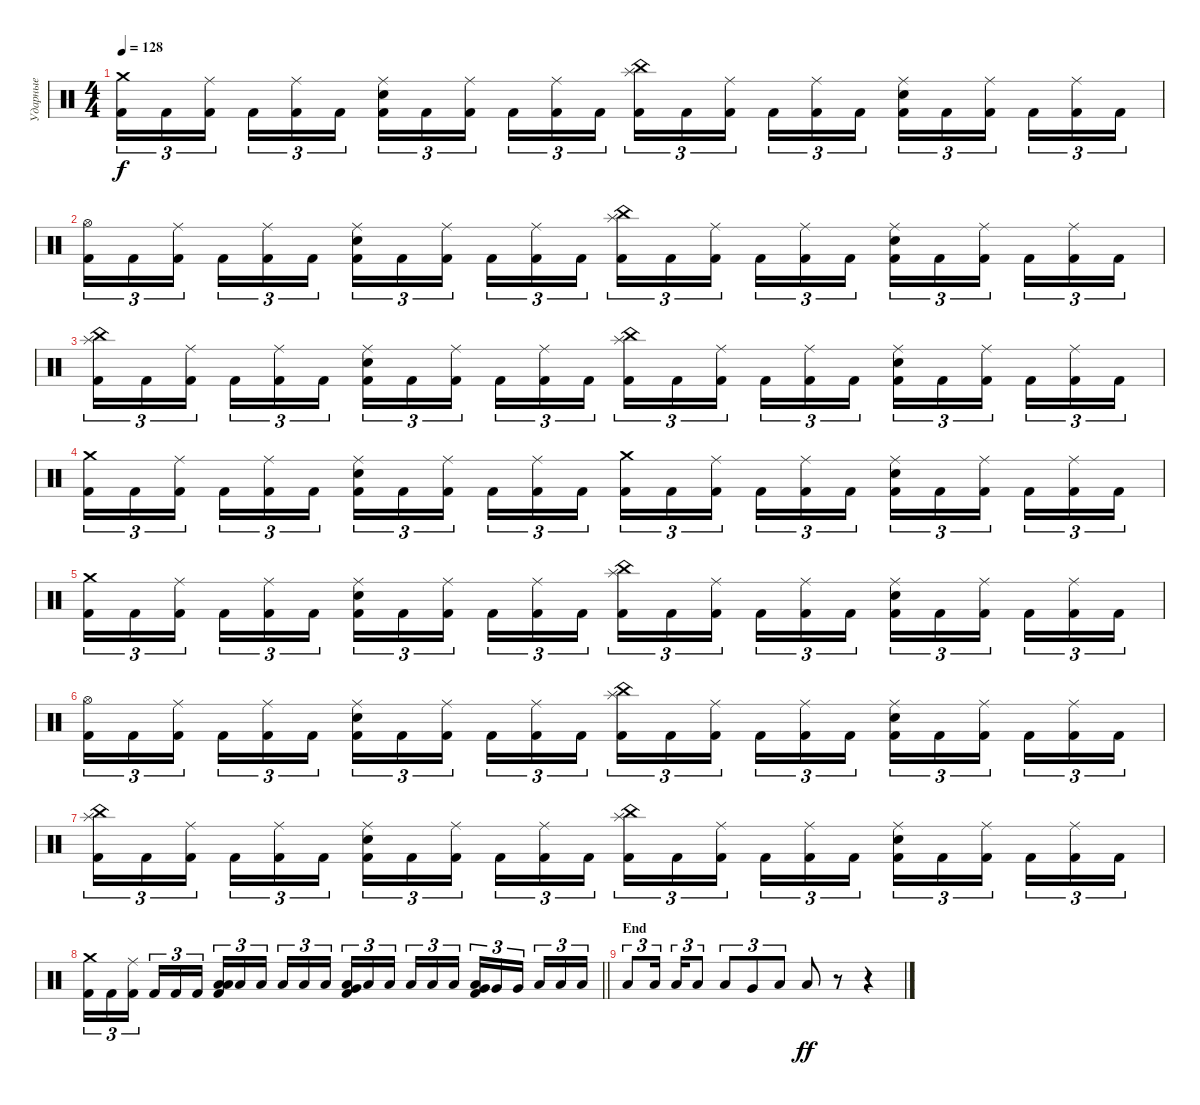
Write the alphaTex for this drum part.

\track ("Ударные" "Ударные") {instrument percussion}
\staff {score}
\articulation defaults
\ts (4 4)
\tempo 128
\clef neutral
\ks c
("Crash medium (hit)" "Kick (hit) 2").16{tu (3 2) dy f} "Kick (hit) 2".16{tu (3 2)} ("Ride (middle)" "Kick (hit) 2").16{tu (3 2) beam splitsecondary} "Kick (hit) 2".16{tu (3 2)} ("Ride (middle)" "Kick (hit) 2").16{tu (3 2)} "Kick (hit) 2".16{tu (3 2)} ("Ride (middle)" "Electric Snare (hit)" "Kick (hit) 2").16{tu (3 2)} "Kick (hit) 2".16{tu (3 2)} ("Ride (middle)" "Kick (hit) 2").16{tu (3 2) beam splitsecondary} "Kick (hit) 2".16{tu (3 2)} ("Ride (middle)" "Kick (hit) 2").16{tu (3 2)} "Kick (hit) 2".16{tu (3 2)} ("China (hit)" "Splash (hit)" "Kick (hit) 2").16{tu (3 2)} "Kick (hit) 2".16{tu (3 2)} ("Ride (middle)" "Kick (hit) 2").16{tu (3 2) beam splitsecondary} "Kick (hit) 2".16{tu (3 2)} ("Ride (middle)" "Kick (hit) 2").16{tu (3 2)} "Kick (hit) 2".16{tu (3 2)} ("Ride (middle)" "Electric Snare (hit)" "Kick (hit) 2").16{tu (3 2)} "Kick (hit) 2".16{tu (3 2)} ("Ride (middle)" "Kick (hit) 2").16{tu (3 2) beam splitsecondary} "Kick (hit) 2".16{tu (3 2)} ("Ride (middle)" "Kick (hit) 2").16{tu (3 2)} "Kick (hit) 2".16{tu (3 2)} |
("Hi-Hat (open)" "Kick (hit) 2").16{tu (3 2)} "Kick (hit) 2".16{tu (3 2)} ("Ride (middle)" "Kick (hit) 2").16{tu (3 2) beam splitsecondary} "Kick (hit) 2".16{tu (3 2)} ("Ride (middle)" "Kick (hit) 2").16{tu (3 2)} "Kick (hit) 2".16{tu (3 2)} ("Ride (middle)" "Electric Snare (hit)" "Kick (hit) 2").16{tu (3 2)} "Kick (hit) 2".16{tu (3 2)} ("Ride (middle)" "Kick (hit) 2").16{tu (3 2) beam splitsecondary} "Kick (hit) 2".16{tu (3 2)} ("Ride (middle)" "Kick (hit) 2").16{tu (3 2)} "Kick (hit) 2".16{tu (3 2)} ("China (hit)" "Splash (hit)" "Kick (hit) 2").16{tu (3 2)} "Kick (hit) 2".16{tu (3 2)} ("Ride (middle)" "Kick (hit) 2").16{tu (3 2) beam splitsecondary} "Kick (hit) 2".16{tu (3 2)} ("Ride (middle)" "Kick (hit) 2").16{tu (3 2)} "Kick (hit) 2".16{tu (3 2)} ("Ride (middle)" "Electric Snare (hit)" "Kick (hit) 2").16{tu (3 2)} "Kick (hit) 2".16{tu (3 2)} ("Ride (middle)" "Kick (hit) 2").16{tu (3 2) beam splitsecondary} "Kick (hit) 2".16{tu (3 2)} ("Ride (middle)" "Kick (hit) 2").16{tu (3 2)} "Kick (hit) 2".16{tu (3 2)} |
("China (hit)" "Splash (hit)" "Kick (hit) 2").16{tu (3 2)} "Kick (hit) 2".16{tu (3 2)} ("Ride (middle)" "Kick (hit) 2").16{tu (3 2) beam splitsecondary} "Kick (hit) 2".16{tu (3 2)} ("Ride (middle)" "Kick (hit) 2").16{tu (3 2)} "Kick (hit) 2".16{tu (3 2)} ("Ride (middle)" "Electric Snare (hit)" "Kick (hit) 2").16{tu (3 2)} "Kick (hit) 2".16{tu (3 2)} ("Ride (middle)" "Kick (hit) 2").16{tu (3 2) beam splitsecondary} "Kick (hit) 2".16{tu (3 2)} ("Ride (middle)" "Kick (hit) 2").16{tu (3 2)} "Kick (hit) 2".16{tu (3 2)} ("China (hit)" "Splash (hit)" "Kick (hit) 2").16{tu (3 2)} "Kick (hit) 2".16{tu (3 2)} ("Ride (middle)" "Kick (hit) 2").16{tu (3 2) beam splitsecondary} "Kick (hit) 2".16{tu (3 2)} ("Ride (middle)" "Kick (hit) 2").16{tu (3 2)} "Kick (hit) 2".16{tu (3 2)} ("Ride (middle)" "Electric Snare (hit)" "Kick (hit) 2").16{tu (3 2)} "Kick (hit) 2".16{tu (3 2)} ("Ride (middle)" "Kick (hit) 2").16{tu (3 2) beam splitsecondary} "Kick (hit) 2".16{tu (3 2)} ("Ride (middle)" "Kick (hit) 2").16{tu (3 2)} "Kick (hit) 2".16{tu (3 2)} |
("Crash medium (hit)" "Kick (hit) 2").16{tu (3 2)} "Kick (hit) 2".16{tu (3 2)} ("Ride (middle)" "Kick (hit) 2").16{tu (3 2) beam splitsecondary} "Kick (hit) 2".16{tu (3 2)} ("Ride (middle)" "Kick (hit) 2").16{tu (3 2)} "Kick (hit) 2".16{tu (3 2)} ("Ride (middle)" "Electric Snare (hit)" "Kick (hit) 2").16{tu (3 2)} "Kick (hit) 2".16{tu (3 2)} ("Ride (middle)" "Kick (hit) 2").16{tu (3 2) beam splitsecondary} "Kick (hit) 2".16{tu (3 2)} ("Ride (middle)" "Kick (hit) 2").16{tu (3 2)} "Kick (hit) 2".16{tu (3 2)} ("Crash medium (hit)" "Kick (hit) 2").16{tu (3 2)} "Kick (hit) 2".16{tu (3 2)} ("Ride (middle)" "Kick (hit) 2").16{tu (3 2) beam splitsecondary} "Kick (hit) 2".16{tu (3 2)} ("Ride (middle)" "Kick (hit) 2").16{tu (3 2)} "Kick (hit) 2".16{tu (3 2)} ("Ride (middle)" "Electric Snare (hit)" "Kick (hit) 2").16{tu (3 2)} "Kick (hit) 2".16{tu (3 2)} ("Ride (middle)" "Kick (hit) 2").16{tu (3 2) beam splitsecondary} "Kick (hit) 2".16{tu (3 2)} ("Ride (middle)" "Kick (hit) 2").16{tu (3 2)} "Kick (hit) 2".16{tu (3 2)} |
("Crash medium (hit)" "Kick (hit) 2").16{tu (3 2)} "Kick (hit) 2".16{tu (3 2)} ("Ride (middle)" "Kick (hit) 2").16{tu (3 2) beam splitsecondary} "Kick (hit) 2".16{tu (3 2)} ("Ride (middle)" "Kick (hit) 2").16{tu (3 2)} "Kick (hit) 2".16{tu (3 2)} ("Ride (middle)" "Electric Snare (hit)" "Kick (hit) 2").16{tu (3 2)} "Kick (hit) 2".16{tu (3 2)} ("Ride (middle)" "Kick (hit) 2").16{tu (3 2) beam splitsecondary} "Kick (hit) 2".16{tu (3 2)} ("Ride (middle)" "Kick (hit) 2").16{tu (3 2)} "Kick (hit) 2".16{tu (3 2)} ("China (hit)" "Splash (hit)" "Kick (hit) 2").16{tu (3 2)} "Kick (hit) 2".16{tu (3 2)} ("Ride (middle)" "Kick (hit) 2").16{tu (3 2) beam splitsecondary} "Kick (hit) 2".16{tu (3 2)} ("Ride (middle)" "Kick (hit) 2").16{tu (3 2)} "Kick (hit) 2".16{tu (3 2)} ("Ride (middle)" "Electric Snare (hit)" "Kick (hit) 2").16{tu (3 2)} "Kick (hit) 2".16{tu (3 2)} ("Ride (middle)" "Kick (hit) 2").16{tu (3 2) beam splitsecondary} "Kick (hit) 2".16{tu (3 2)} ("Ride (middle)" "Kick (hit) 2").16{tu (3 2)} "Kick (hit) 2".16{tu (3 2)} |
("Hi-Hat (open)" "Kick (hit) 2").16{tu (3 2)} "Kick (hit) 2".16{tu (3 2)} ("Ride (middle)" "Kick (hit) 2").16{tu (3 2) beam splitsecondary} "Kick (hit) 2".16{tu (3 2)} ("Ride (middle)" "Kick (hit) 2").16{tu (3 2)} "Kick (hit) 2".16{tu (3 2)} ("Ride (middle)" "Electric Snare (hit)" "Kick (hit) 2").16{tu (3 2)} "Kick (hit) 2".16{tu (3 2)} ("Ride (middle)" "Kick (hit) 2").16{tu (3 2) beam splitsecondary} "Kick (hit) 2".16{tu (3 2)} ("Ride (middle)" "Kick (hit) 2").16{tu (3 2)} "Kick (hit) 2".16{tu (3 2)} ("China (hit)" "Splash (hit)" "Kick (hit) 2").16{tu (3 2)} "Kick (hit) 2".16{tu (3 2)} ("Ride (middle)" "Kick (hit) 2").16{tu (3 2) beam splitsecondary} "Kick (hit) 2".16{tu (3 2)} ("Ride (middle)" "Kick (hit) 2").16{tu (3 2)} "Kick (hit) 2".16{tu (3 2)} ("Ride (middle)" "Electric Snare (hit)" "Kick (hit) 2").16{tu (3 2)} "Kick (hit) 2".16{tu (3 2)} ("Ride (middle)" "Kick (hit) 2").16{tu (3 2) beam splitsecondary} "Kick (hit) 2".16{tu (3 2)} ("Ride (middle)" "Kick (hit) 2").16{tu (3 2)} "Kick (hit) 2".16{tu (3 2)} |
("China (hit)" "Splash (hit)" "Kick (hit) 2").16{tu (3 2)} "Kick (hit) 2".16{tu (3 2)} ("Ride (middle)" "Kick (hit) 2").16{tu (3 2) beam splitsecondary} "Kick (hit) 2".16{tu (3 2)} ("Ride (middle)" "Kick (hit) 2").16{tu (3 2)} "Kick (hit) 2".16{tu (3 2)} ("Ride (middle)" "Electric Snare (hit)" "Kick (hit) 2").16{tu (3 2)} "Kick (hit) 2".16{tu (3 2)} ("Ride (middle)" "Kick (hit) 2").16{tu (3 2) beam splitsecondary} "Kick (hit) 2".16{tu (3 2)} ("Ride (middle)" "Kick (hit) 2").16{tu (3 2)} "Kick (hit) 2".16{tu (3 2)} ("China (hit)" "Splash (hit)" "Kick (hit) 2").16{tu (3 2)} "Kick (hit) 2".16{tu (3 2)} ("Ride (middle)" "Kick (hit) 2").16{tu (3 2) beam splitsecondary} "Kick (hit) 2".16{tu (3 2)} ("Ride (middle)" "Kick (hit) 2").16{tu (3 2)} "Kick (hit) 2".16{tu (3 2)} ("Ride (middle)" "Electric Snare (hit)" "Kick (hit) 2").16{tu (3 2)} "Kick (hit) 2".16{tu (3 2)} ("Ride (middle)" "Kick (hit) 2").16{tu (3 2) beam splitsecondary} "Kick (hit) 2".16{tu (3 2)} ("Ride (middle)" "Kick (hit) 2").16{tu (3 2)} "Kick (hit) 2".16{tu (3 2)} |
\barLineRight lightlight
("Crash medium (hit)" "Kick (hit) 2").16{tu (3 2)} "Kick (hit) 2".16{tu (3 2)} ("Ride (middle)" "Kick (hit) 2").16{tu (3 2) beam splitsecondary} "Kick (hit) 2".16{tu (3 2)} "Kick (hit) 2".16{tu (3 2)} "Kick (hit) 2".16{tu (3 2)} ("Low Floor Tom (hit)" "Low Tom (hit)" "Kick (hit) 2").16{tu (3 2)} "Low Tom (hit)".16{tu (3 2)} "Low Tom (hit)".16{tu (3 2) beam splitsecondary} "Low Tom (hit)".16{tu (3 2)} "Low Tom (hit)".16{tu (3 2)} "Low Tom (hit)".16{tu (3 2)} ("Very Low Tom (hit)" "Low Tom (hit)" "Kick (hit) 2").16{tu (3 2)} "Low Tom (hit)".16{tu (3 2)} "Low Tom (hit)".16{tu (3 2) beam splitsecondary} "Low Tom (hit)".16{tu (3 2)} "Low Tom (hit)".16{tu (3 2)} "Low Tom (hit)".16{tu (3 2)} ("Very Low Tom (hit)" "Low Floor Tom (hit)" "Kick (hit) 2").16{tu (3 2)} "Very Low Tom (hit)".16{tu (3 2)} "Very Low Tom (hit)".16{tu (3 2) beam splitsecondary} "Low Floor Tom (hit)".16{tu (3 2)} "Low Floor Tom (hit)".16{tu (3 2)} "Low Floor Tom (hit)".16{tu (3 2)} |
\section ("" "End")
"Low Tom (hit)".8{tu (3 2)} "Low Tom (hit)".16{tu (3 2) beam splitsecondary} "Low Tom (hit)".16{tu (3 2)} "Low Tom (hit)".8{tu (3 2)} "Low Tom (hit)".8{tu (3 2)} "Very Low Tom (hit)".8{tu (3 2)} "Low Floor Tom (hit)".8{tu (3 2)} "Low Floor Tom (hit)".8{dy ff} r.8 r.4
